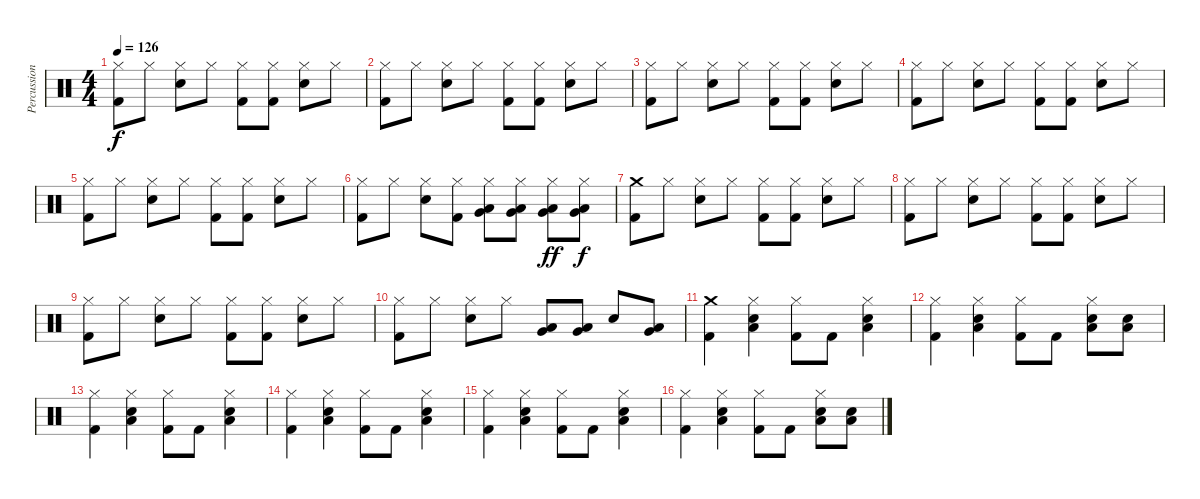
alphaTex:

\track ("Percussion" "Percussion") {instrument percussion}
\staff {score}
\articulation defaults
\ts (4 4)
\tempo 126
\clef neutral
\ks c
("Hi-Hat (closed)" "Kick (hit) 2").8{dy f} "Hi-Hat (closed)".8 ("Hi-Hat (closed)" "Metronome (bell)").8 "Hi-Hat (closed)".8 ("Hi-Hat (closed)" "Kick (hit) 2").8 ("Hi-Hat (closed)" "Kick (hit) 2").8 ("Hi-Hat (closed)" "Metronome (bell)").8 "Hi-Hat (closed)".8 |
("Hi-Hat (closed)" "Kick (hit) 2").8 "Hi-Hat (closed)".8 ("Hi-Hat (closed)" "Metronome (bell)").8 "Hi-Hat (closed)".8 ("Hi-Hat (closed)" "Kick (hit) 2").8 ("Hi-Hat (closed)" "Kick (hit) 2").8 ("Hi-Hat (closed)" "Metronome (bell)").8 "Hi-Hat (closed)".8 |
("Hi-Hat (closed)" "Kick (hit) 2").8 "Hi-Hat (closed)".8 ("Hi-Hat (closed)" "Metronome (bell)").8 "Hi-Hat (closed)".8 ("Hi-Hat (closed)" "Kick (hit) 2").8 ("Hi-Hat (closed)" "Kick (hit) 2").8 ("Hi-Hat (closed)" "Metronome (bell)").8 "Hi-Hat (closed)".8 |
("Hi-Hat (closed)" "Kick (hit) 2").8 "Hi-Hat (closed)".8 ("Hi-Hat (closed)" "Metronome (bell)").8 "Hi-Hat (closed)".8 ("Hi-Hat (closed)" "Kick (hit) 2").8 ("Hi-Hat (closed)" "Kick (hit) 2").8 ("Hi-Hat (closed)" "Metronome (bell)").8 "Hi-Hat (closed)".8 |
("Hi-Hat (closed)" "Kick (hit) 2").8 "Hi-Hat (closed)".8 ("Hi-Hat (closed)" "Metronome (bell)").8 "Hi-Hat (closed)".8 ("Hi-Hat (closed)" "Kick (hit) 2").8 ("Hi-Hat (closed)" "Kick (hit) 2").8 ("Hi-Hat (closed)" "Metronome (bell)").8 "Hi-Hat (closed)".8 |
("Hi-Hat (closed)" "Kick (hit) 2").8 "Hi-Hat (closed)".8 ("Hi-Hat (closed)" "Metronome (bell)").8 ("Hi-Hat (closed)" "Kick (hit) 2").8 ("Hi-Hat (closed)" "Very Low Tom (hit)" "Low Floor Tom (hit)").8 ("Hi-Hat (closed)" "Very Low Tom (hit)" "Low Floor Tom (hit)").8 ("Hi-Hat (closed)" "Low Tom (hit)" "Very Low Tom (hit)").8{dy ff} ("Hi-Hat (closed)" "Very Low Tom (hit)" "Low Floor Tom (hit)").8{dy f} |
("Crash medium (hit)" "Kick (hit) 2").8 "Hi-Hat (closed)".8 ("Hi-Hat (closed)" "Metronome (bell)").8 "Hi-Hat (closed)".8 ("Hi-Hat (closed)" "Kick (hit) 2").8 ("Hi-Hat (closed)" "Kick (hit) 2").8 ("Hi-Hat (closed)" "Metronome (bell)").8 "Hi-Hat (closed)".8 |
("Hi-Hat (closed)" "Kick (hit) 2").8 "Hi-Hat (closed)".8 ("Hi-Hat (closed)" "Metronome (bell)").8 "Hi-Hat (closed)".8 ("Hi-Hat (closed)" "Kick (hit) 2").8 ("Hi-Hat (closed)" "Kick (hit) 2").8 ("Hi-Hat (closed)" "Metronome (bell)").8 "Hi-Hat (closed)".8 |
("Hi-Hat (closed)" "Kick (hit) 2").8 "Hi-Hat (closed)".8 ("Hi-Hat (closed)" "Metronome (bell)").8 "Hi-Hat (closed)".8 ("Hi-Hat (closed)" "Kick (hit) 2").8 ("Hi-Hat (closed)" "Kick (hit) 2").8 ("Hi-Hat (closed)" "Metronome (bell)").8 "Hi-Hat (closed)".8 |
("Hi-Hat (closed)" "Kick (hit) 2").8 "Hi-Hat (closed)".8 ("Hi-Hat (closed)" "Metronome (bell)").8 "Hi-Hat (closed)".8 ("Low Tom (hit)" "Very Low Tom (hit)").8 ("Low Tom (hit)" "Very Low Tom (hit)").8 "Metronome (bell)".8 ("Very Low Tom (hit)" "Low Floor Tom (hit)").8 |
("Crash medium (hit)" "Kick (hit) 2").4 ("Hi-Hat (closed)" "Low Floor Tom (hit)" "Metronome (bell)").4 ("Hi-Hat (closed)" "Kick (hit) 2").8 "Kick (hit) 2".8 ("Hi-Hat (closed)" "Low Floor Tom (hit)" "Metronome (bell)").4 |
("Hi-Hat (closed)" "Kick (hit) 2").4 ("Hi-Hat (closed)" "Low Floor Tom (hit)" "Metronome (bell)").4 ("Hi-Hat (closed)" "Kick (hit) 2").8 "Kick (hit) 2".8 ("Hi-Hat (closed)" "Low Floor Tom (hit)" "Metronome (bell)").8 ("Low Floor Tom (hit)" "Metronome (bell)").8 |
("Hi-Hat (closed)" "Kick (hit) 2").4 ("Hi-Hat (closed)" "Low Floor Tom (hit)" "Metronome (bell)").4 ("Hi-Hat (closed)" "Kick (hit) 2").8 "Kick (hit) 2".8 ("Hi-Hat (closed)" "Low Floor Tom (hit)" "Metronome (bell)").4 |
("Hi-Hat (closed)" "Kick (hit) 2").4 ("Hi-Hat (closed)" "Low Floor Tom (hit)" "Metronome (bell)").4 ("Hi-Hat (closed)" "Kick (hit) 2").8 "Kick (hit) 2".8 ("Hi-Hat (closed)" "Low Floor Tom (hit)" "Metronome (bell)").4 |
("Hi-Hat (closed)" "Kick (hit) 2").4 ("Hi-Hat (closed)" "Low Floor Tom (hit)" "Metronome (bell)").4 ("Hi-Hat (closed)" "Kick (hit) 2").8 "Kick (hit) 2".8 ("Hi-Hat (closed)" "Low Floor Tom (hit)" "Metronome (bell)").4 |
("Hi-Hat (closed)" "Kick (hit) 2").4 ("Hi-Hat (closed)" "Low Floor Tom (hit)" "Metronome (bell)").4 ("Hi-Hat (closed)" "Kick (hit) 2").8 "Kick (hit) 2".8 ("Hi-Hat (closed)" "Low Floor Tom (hit)" "Metronome (bell)").8 ("Low Floor Tom (hit)" "Metronome (bell)").8
